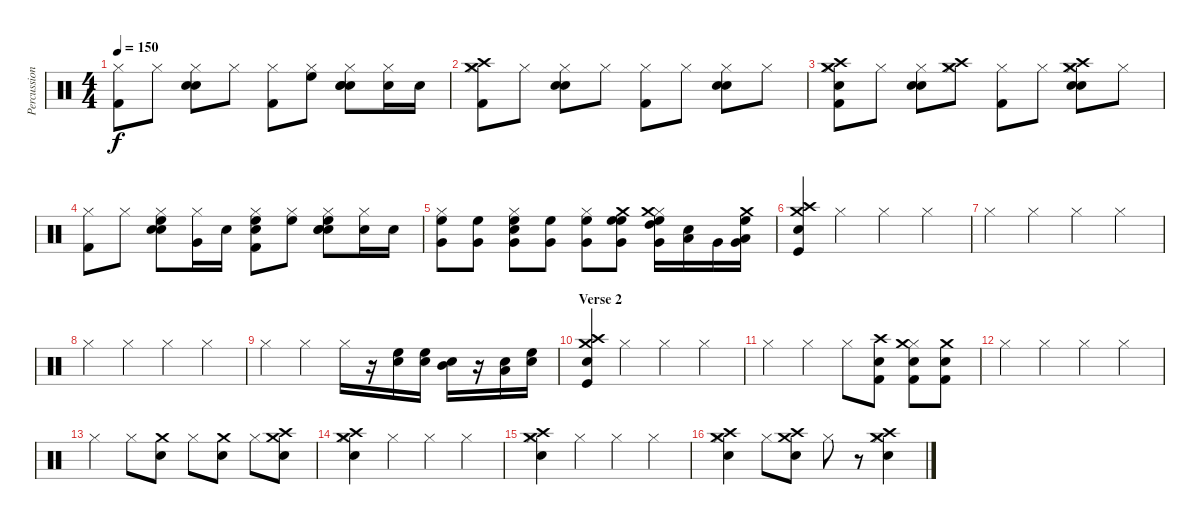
\track ("Percussion" "Percussion") {instrument percussion}
\staff {score}
\articulation defaults
\ts (4 4)
\tempo 150
\clef neutral
\ks c
("Hi-Hat (closed)" "Kick (hit) 2").8{dy f} "Hi-Hat (closed)".8 ("Hi-Hat (closed)" "Snare (hit) 2" "Electric Snare (hit)").8 "Hi-Hat (closed)".8 ("Hi-Hat (closed)" "Kick (hit) 2").8 ("Hi-Hat (closed)" "High Floor Tom (hit)").8 ("Hi-Hat (closed)" "Snare (hit) 2" "Electric Snare (hit)" "Snare (hit) 2").8 ("Hi-Hat (closed)" "Snare (hit) 2").16 "Snare (hit) 2".16 |
("Hi-Hat (closed)" "Kick (hit) 2" "Crash medium (hit)" "Crash high (hit)").8 "Hi-Hat (closed)".8 ("Hi-Hat (closed)" "Snare (hit) 2" "Electric Snare (hit)").8 "Hi-Hat (closed)".8 ("Hi-Hat (closed)" "Kick (hit) 2").8 "Hi-Hat (closed)".8 ("Hi-Hat (closed)" "Snare (hit) 2" "Electric Snare (hit)").8 "Hi-Hat (closed)".8 |
("Hi-Hat (closed)" "Kick (hit) 2" "Crash high (hit)" "Snare (hit) 2" "Crash medium (hit)").8 "Hi-Hat (closed)".8 ("Hi-Hat (closed)" "Snare (hit) 2" "Electric Snare (hit)").8 ("Hi-Hat (closed)" "Crash high (hit)" "Crash medium (hit)").8 ("Hi-Hat (closed)" "Kick (hit) 2").8 "Hi-Hat (closed)".8 ("Hi-Hat (closed)" "Snare (hit) 2" "Electric Snare (hit)" "Crash high (hit)" "Crash medium (hit)").8 "Hi-Hat (closed)".8 |
("Hi-Hat (closed)" "Kick (hit) 2").8 "Hi-Hat (closed)".8 ("Hi-Hat (closed)" "Snare (hit) 2" "Electric Snare (hit)" "High Floor Tom (hit)").8 ("Hi-Hat (closed)" "Very Low Tom (hit)").16 "Snare (hit) 2".16 ("Hi-Hat (closed)" "Kick (hit) 2" "Snare (hit) 2" "High Floor Tom (hit)").8 ("Hi-Hat (closed)" "High Floor Tom (hit)").8 ("Hi-Hat (closed)" "Snare (hit) 2" "Electric Snare (hit)" "Snare (hit) 2" "High Floor Tom (hit)").8 ("Hi-Hat (closed)" "Snare (hit) 2").16 "Snare (hit) 2".16 |
("Hi-Hat (closed)" "High Floor Tom (hit)" "Very Low Tom (hit)").8 ("High Floor Tom (hit)" "Very Low Tom (hit)").8 ("Hi-Hat (closed)" "High Floor Tom (hit)" "Snare (hit) 2" "Very Low Tom (hit)").8 ("High Floor Tom (hit)" "Very Low Tom (hit)").8 ("Hi-Hat (closed)" "High Floor Tom (hit)" "Very Low Tom (hit)").8 ("High Floor Tom (hit)" "High Floor Tom (hit)" "Very Low Tom (hit)" "Crash medium (hit)").8 ("Hi-Hat (closed)" "High Floor Tom (hit)" "High Tom (hit)" "Very Low Tom (hit)" "Crash medium (hit)").16 ("Low Tom (hit)" "Snare (hit) 2").16 "Very Low Tom (hit)".16 ("High Floor Tom (hit)" "Low Tom (hit)" "Very Low Tom (hit)" "Crash medium (hit)").16 |
("Snare (hit) 2" "Kick (hit)" "Crash medium (hit)" "Crash high (hit)").4 "Hi-Hat (closed)".4 "Hi-Hat (closed)".4 "Hi-Hat (closed)".4 |
"Hi-Hat (closed)".4 "Hi-Hat (closed)".4 "Hi-Hat (closed)".4 "Hi-Hat (closed)".4 |
"Hi-Hat (closed)".4 "Hi-Hat (closed)".4 "Hi-Hat (closed)".4 "Hi-Hat (closed)".4 |
"Hi-Hat (closed)".4 "Hi-Hat (closed)".4 "Hi-Hat (closed)".16 r.16 ("High Floor Tom (hit)" "Snare (hit) 2").16 ("High Floor Tom (hit)" "Snare (hit) 2").16 ("Mid Tom (hit)" "Snare (hit) 2").16 r.16 ("Low Tom (hit)" "Snare (hit) 2").16 ("High Floor Tom (hit)" "Snare (hit) 2").16 |
\section ("" "Verse 2")
("Snare (hit) 2" "Kick (hit)" "Crash medium (hit)" "Crash high (hit)").4 "Hi-Hat (closed)".4 "Hi-Hat (closed)".4 "Hi-Hat (closed)".4 |
"Hi-Hat (closed)".4 "Hi-Hat (closed)".4 "Hi-Hat (closed)".8 ("Kick (hit) 2" "Snare (hit) 2" "Crash high (hit)").8 ("Hi-Hat (closed)" "Kick (hit) 2" "Snare (hit) 2" "Crash medium (hit)").8 ("Kick (hit) 2" "Snare (hit) 2" "Crash medium (hit)").8 |
"Hi-Hat (closed)".4 "Hi-Hat (closed)".4 "Hi-Hat (closed)".4 "Hi-Hat (closed)".4 |
"Hi-Hat (closed)".4 "Hi-Hat (closed)".8 ("Crash medium (hit)" "Snare (hit) 2").8 "Hi-Hat (closed)".8 ("Crash medium (hit)" "Snare (hit) 2").8 "Hi-Hat (closed)".8 ("Crash high (hit)" "Crash medium (hit)" "Snare (hit) 2").8 |
("Hi-Hat (closed)" "Crash high (hit)" "Crash medium (hit)" "Snare (hit) 2").4 "Hi-Hat (closed)".4 "Hi-Hat (closed)".4 "Hi-Hat (closed)".4 |
("Hi-Hat (closed)" "Snare (hit) 2" "Crash medium (hit)" "Crash high (hit)").4 "Hi-Hat (closed)".4 "Hi-Hat (closed)".4 "Hi-Hat (closed)".4 |
("Hi-Hat (closed)" "Snare (hit) 2" "Crash medium (hit)" "Crash high (hit)").4 "Hi-Hat (closed)".8 ("Snare (hit) 2" "Crash medium (hit)" "Crash high (hit)").8 "Hi-Hat (closed)".8 r.8 ("Hi-Hat (closed)" "Snare (hit) 2" "Crash medium (hit)" "Crash high (hit)").4
